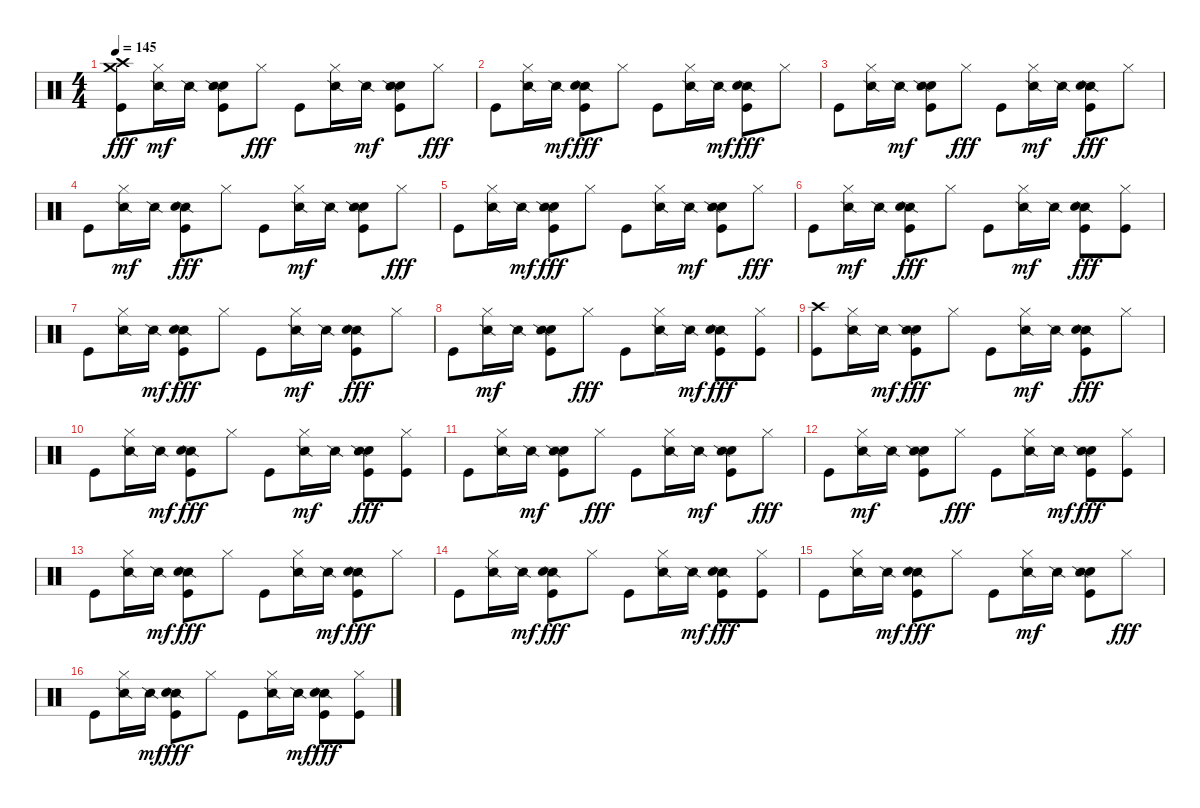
\track "" {instrument percussion}
\staff {score}
\articulation defaults
\ts (4 4)
\tempo 145
\clef neutral
\ks c
("Kick (hit)" "Crash high (hit)" "Crash medium (hit)").8{dy fff} ("Hi-Hat (closed)" "Snare (side stick) 2").16{dy mf} "Snare (side stick) 2".16 ("Kick (hit)" "Hand Clap (hit)" "Snare (side stick) 2").8 "Hi-Hat (closed)".8{dy fff} "Kick (hit)".8 ("Snare (side stick) 2" "Hi-Hat (closed)").16 "Snare (side stick) 2".16{dy mf} ("Kick (hit)" "Hand Clap (hit)" "Snare (side stick) 2").8 "Hi-Hat (closed)".8{dy fff} |
"Kick (hit)".8 ("Snare (side stick) 2" "Hi-Hat (closed)").16 "Snare (side stick) 2".16{dy mf} ("Snare (side stick) 2" "Hand Clap (hit)" "Kick (hit)").8{dy fff} "Hi-Hat (closed)".8 "Kick (hit)".8 ("Snare (side stick) 2" "Hi-Hat (closed)").16 "Snare (side stick) 2".16{dy mf} ("Snare (side stick) 2" "Kick (hit)" "Hand Clap (hit)").8{dy fff} "Hi-Hat (closed)".8 |
"Kick (hit)".8 ("Snare (side stick) 2" "Hi-Hat (closed)").16 "Snare (side stick) 2".16{dy mf} ("Kick (hit)" "Hand Clap (hit)" "Snare (side stick) 2").8 "Hi-Hat (closed)".8{dy fff} "Kick (hit)".8 ("Hi-Hat (closed)" "Snare (side stick) 2").16{dy mf} "Snare (side stick) 2".16 ("Snare (side stick) 2" "Hand Clap (hit)" "Kick (hit)").8{dy fff} "Hi-Hat (closed)".8 |
"Kick (hit)".8 ("Hi-Hat (closed)" "Snare (side stick) 2").16{dy mf} "Snare (side stick) 2".16 ("Kick (hit)" "Snare (side stick) 2" "Hand Clap (hit)").8{dy fff} "Hi-Hat (closed)".8 "Kick (hit)".8 ("Hi-Hat (closed)" "Snare (side stick) 2").16{dy mf} "Snare (side stick) 2".16 ("Kick (hit)" "Hand Clap (hit)" "Snare (side stick) 2").8 "Hi-Hat (closed)".8{dy fff} |
"Kick (hit)".8 ("Snare (side stick) 2" "Hi-Hat (closed)").16 "Snare (side stick) 2".16{dy mf} ("Hand Clap (hit)" "Snare (side stick) 2" "Kick (hit)").8{dy fff} "Hi-Hat (closed)".8 "Kick (hit)".8 ("Snare (side stick) 2" "Hi-Hat (closed)").16 "Snare (side stick) 2".16{dy mf} ("Hand Clap (hit)" "Kick (hit)" "Snare (side stick) 2").8 "Hi-Hat (closed)".8{dy fff} |
"Kick (hit)".8 ("Hi-Hat (closed)" "Snare (side stick) 2").16{dy mf} "Snare (side stick) 2".16 ("Snare (side stick) 2" "Hand Clap (hit)" "Kick (hit)").8{dy fff} "Hi-Hat (closed)".8 "Kick (hit)".8 ("Hi-Hat (closed)" "Snare (side stick) 2").16{dy mf} "Snare (side stick) 2".16 ("Kick (hit)" "Snare (side stick) 2" "Hand Clap (hit)").8{dy fff} ("Kick (hit)" "Hi-Hat (closed)").8 |
"Kick (hit)".8 ("Snare (side stick) 2" "Hi-Hat (closed)").16 "Snare (side stick) 2".16{dy mf} ("Snare (side stick) 2" "Kick (hit)" "Hand Clap (hit)").8{dy fff} "Hi-Hat (closed)".8 "Kick (hit)".8 ("Hi-Hat (closed)" "Snare (side stick) 2").16{dy mf} "Snare (side stick) 2".16 ("Snare (side stick) 2" "Kick (hit)" "Hand Clap (hit)").8{dy fff} "Hi-Hat (closed)".8 |
"Kick (hit)".8 ("Hi-Hat (closed)" "Snare (side stick) 2").16{dy mf} "Snare (side stick) 2".16 ("Hand Clap (hit)" "Kick (hit)" "Snare (side stick) 2").8 "Hi-Hat (closed)".8{dy fff} "Kick (hit)".8 ("Snare (side stick) 2" "Hi-Hat (closed)").16 "Snare (side stick) 2".16{dy mf} ("Snare (side stick) 2" "Kick (hit)" "Hand Clap (hit)").8{dy fff} ("Kick (hit)" "Hi-Hat (closed)").8 |
("Kick (hit)" "Crash high (hit)").8 ("Snare (side stick) 2" "Hi-Hat (closed)").16 "Snare (side stick) 2".16{dy mf} ("Hand Clap (hit)" "Snare (side stick) 2" "Kick (hit)").8{dy fff} "Hi-Hat (closed)".8 "Kick (hit)".8 ("Hi-Hat (closed)" "Snare (side stick) 2").16{dy mf} "Snare (side stick) 2".16 ("Snare (side stick) 2" "Kick (hit)" "Hand Clap (hit)").8{dy fff} "Hi-Hat (closed)".8 |
"Kick (hit)".8 ("Snare (side stick) 2" "Hi-Hat (closed)").16 "Snare (side stick) 2".16{dy mf} ("Kick (hit)" "Snare (side stick) 2" "Hand Clap (hit)").8{dy fff} "Hi-Hat (closed)".8 "Kick (hit)".8 ("Hi-Hat (closed)" "Snare (side stick) 2").16{dy mf} "Snare (side stick) 2".16 ("Hand Clap (hit)" "Snare (side stick) 2" "Kick (hit)").8{dy fff} ("Kick (hit)" "Hi-Hat (closed)").8 |
"Kick (hit)".8 ("Snare (side stick) 2" "Hi-Hat (closed)").16 "Snare (side stick) 2".16{dy mf} ("Hand Clap (hit)" "Kick (hit)" "Snare (side stick) 2").8 "Hi-Hat (closed)".8{dy fff} "Kick (hit)".8 ("Snare (side stick) 2" "Hi-Hat (closed)").16 "Snare (side stick) 2".16{dy mf} ("Hand Clap (hit)" "Kick (hit)" "Snare (side stick) 2").8 "Hi-Hat (closed)".8{dy fff} |
"Kick (hit)".8 ("Hi-Hat (closed)" "Snare (side stick) 2").16{dy mf} "Snare (side stick) 2".16 ("Kick (hit)" "Hand Clap (hit)" "Snare (side stick) 2").8 "Hi-Hat (closed)".8{dy fff} "Kick (hit)".8 ("Snare (side stick) 2" "Hi-Hat (closed)").16 "Snare (side stick) 2".16{dy mf} ("Hand Clap (hit)" "Snare (side stick) 2" "Kick (hit)").8{dy fff} ("Kick (hit)" "Hi-Hat (closed)").8 |
"Kick (hit)".8 ("Snare (side stick) 2" "Hi-Hat (closed)").16 "Snare (side stick) 2".16{dy mf} ("Snare (side stick) 2" "Hand Clap (hit)" "Kick (hit)").8{dy fff} "Hi-Hat (closed)".8 "Kick (hit)".8 ("Snare (side stick) 2" "Hi-Hat (closed)").16 "Snare (side stick) 2".16{dy mf} ("Snare (side stick) 2" "Kick (hit)" "Hand Clap (hit)").8{dy fff} "Hi-Hat (closed)".8 |
"Kick (hit)".8 ("Snare (side stick) 2" "Hi-Hat (closed)").16 "Snare (side stick) 2".16{dy mf} ("Snare (side stick) 2" "Kick (hit)" "Hand Clap (hit)").8{dy fff} "Hi-Hat (closed)".8 "Kick (hit)".8 ("Snare (side stick) 2" "Hi-Hat (closed)").16 "Snare (side stick) 2".16{dy mf} ("Snare (side stick) 2" "Hand Clap (hit)" "Kick (hit)").8{dy fff} ("Hi-Hat (closed)" "Kick (hit)").8 |
"Kick (hit)".8 ("Snare (side stick) 2" "Hi-Hat (closed)").16 "Snare (side stick) 2".16{dy mf} ("Snare (side stick) 2" "Kick (hit)" "Hand Clap (hit)").8{dy fff} "Hi-Hat (closed)".8 "Kick (hit)".8 ("Hi-Hat (closed)" "Snare (side stick) 2").16{dy mf} "Snare (side stick) 2".16 ("Hand Clap (hit)" "Kick (hit)" "Snare (side stick) 2").8 "Hi-Hat (closed)".8{dy fff} |
"Kick (hit)".8 ("Snare (side stick) 2" "Hi-Hat (closed)").16 "Snare (side stick) 2".16{dy mf} ("Snare (side stick) 2" "Kick (hit)" "Hand Clap (hit)").8{dy fff} "Hi-Hat (closed)".8 "Kick (hit)".8 ("Snare (side stick) 2" "Hi-Hat (closed)").16 "Snare (side stick) 2".16{dy mf} ("Snare (side stick) 2" "Kick (hit)" "Hand Clap (hit)").8{dy fff} ("Hi-Hat (closed)" "Kick (hit)").8
